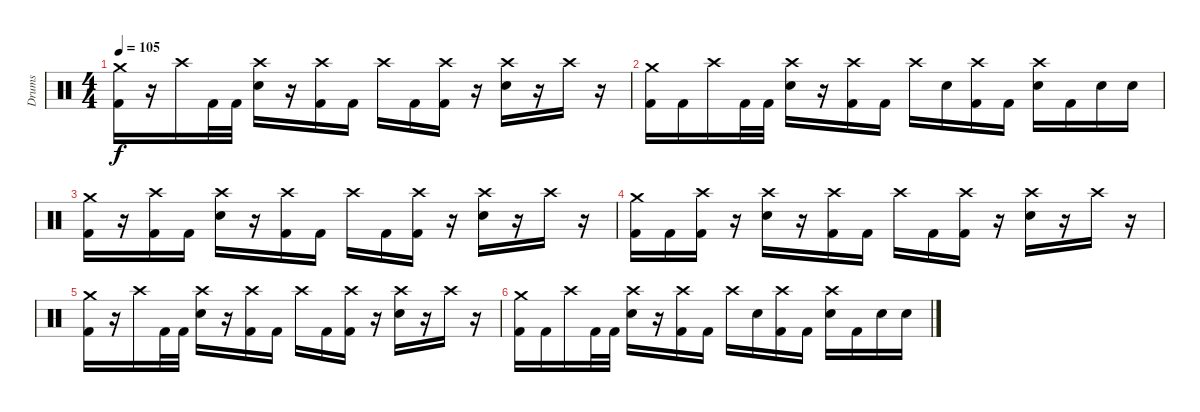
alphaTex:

\track ("Drums" "Drums") {instrument percussion}
\staff {score}
\articulation defaults
\ts (4 4)
\tempo 105
\clef neutral
\ks c
("Crash medium (hit)" "Kick (hit) 2").16{dy f} r.16 "Crash high (hit)".16 "Kick (hit) 2".32 "Kick (hit) 2".32 ("Crash high (hit)" "Electric Snare (hit)").16 r.16 ("Crash high (hit)" "Kick (hit) 2").16 "Kick (hit) 2".16 "Crash high (hit)".16 "Kick (hit) 2".16 ("Crash high (hit)" "Kick (hit) 2").16 r.16 ("Crash high (hit)" "Electric Snare (hit)").16 r.16 "Crash high (hit)".16 r.16 |
("Crash medium (hit)" "Kick (hit) 2").16 "Kick (hit) 2".16 "Crash high (hit)".16 "Kick (hit) 2".32 "Kick (hit) 2".32 ("Crash high (hit)" "Electric Snare (hit)").16 r.16 ("Crash high (hit)" "Kick (hit) 2").16 "Kick (hit) 2".16 "Crash high (hit)".16 "Electric Snare (hit)".16 ("Crash high (hit)" "Kick (hit) 2").16 "Kick (hit) 2".16 ("Crash high (hit)" "Electric Snare (hit)").16 "Kick (hit) 2".16 "Electric Snare (hit)".16 "Electric Snare (hit)".16 |
("Crash medium (hit)" "Kick (hit) 2").16 r.16 ("Crash high (hit)" "Kick (hit) 2").16 "Kick (hit) 2".16 ("Crash high (hit)" "Electric Snare (hit)").16 r.16 ("Crash high (hit)" "Kick (hit) 2").16 "Kick (hit) 2".16 "Crash high (hit)".16 "Kick (hit) 2".16 ("Crash high (hit)" "Kick (hit) 2").16 r.16 ("Crash high (hit)" "Electric Snare (hit)").16 r.16 "Crash high (hit)".16 r.16 |
("Crash medium (hit)" "Kick (hit) 2").16 "Kick (hit) 2".16 ("Crash high (hit)" "Kick (hit) 2").16 r.16 ("Crash high (hit)" "Electric Snare (hit)").16 r.16 ("Crash high (hit)" "Kick (hit) 2").16 "Kick (hit) 2".16 "Crash high (hit)".16 "Kick (hit) 2".16 ("Crash high (hit)" "Kick (hit) 2").16 r.16 ("Crash high (hit)" "Electric Snare (hit)").16 r.16 "Crash high (hit)".16 r.16 |
("Crash medium (hit)" "Kick (hit) 2").16 r.16 "Crash high (hit)".16 "Kick (hit) 2".32 "Kick (hit) 2".32 ("Crash high (hit)" "Electric Snare (hit)").16 r.16 ("Crash high (hit)" "Kick (hit) 2").16 "Kick (hit) 2".16 "Crash high (hit)".16 "Kick (hit) 2".16 ("Crash high (hit)" "Kick (hit) 2").16 r.16 ("Crash high (hit)" "Electric Snare (hit)").16 r.16 "Crash high (hit)".16 r.16 |
("Crash medium (hit)" "Kick (hit) 2").16 "Kick (hit) 2".16 "Crash high (hit)".16 "Kick (hit) 2".32 "Kick (hit) 2".32 ("Crash high (hit)" "Electric Snare (hit)").16 r.16 ("Crash high (hit)" "Kick (hit) 2").16 "Kick (hit) 2".16 "Crash high (hit)".16 "Electric Snare (hit)".16 ("Crash high (hit)" "Kick (hit) 2").16 "Kick (hit) 2".16 ("Crash high (hit)" "Electric Snare (hit)").16 "Kick (hit) 2".16 "Electric Snare (hit)".16 "Electric Snare (hit)".16
